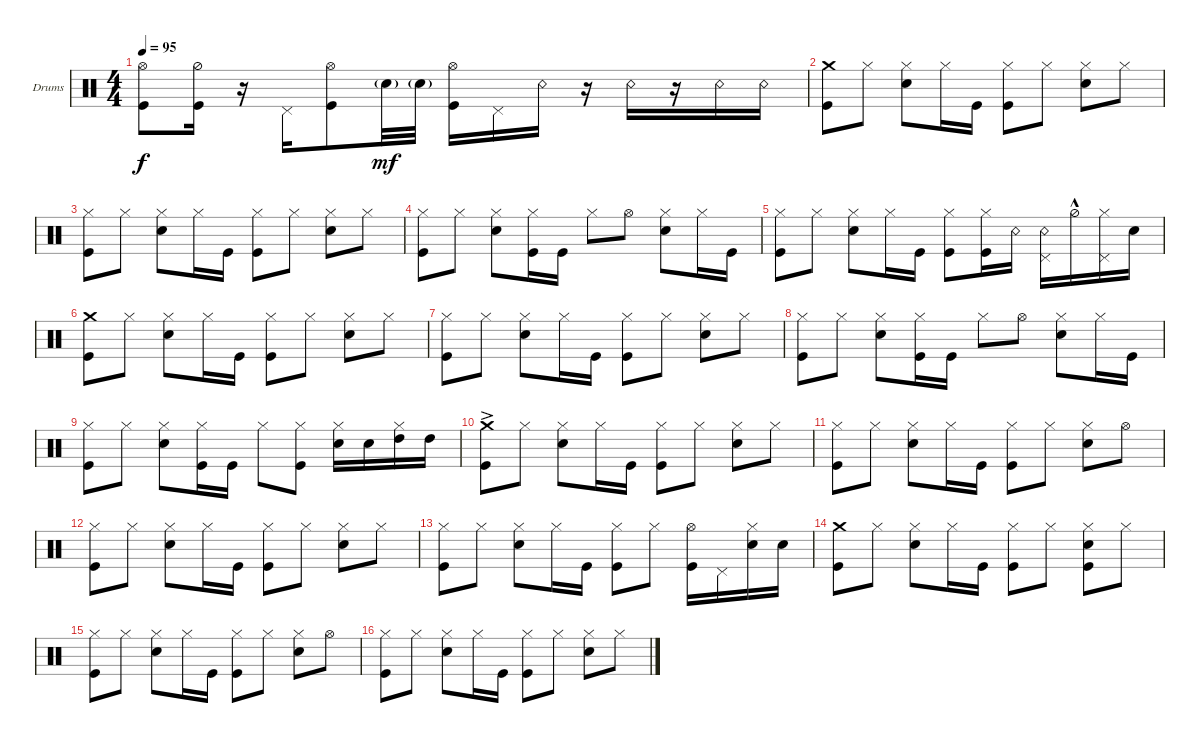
\defaultSystemsLayout 4
\bracketExtendMode groupsimilarinstruments
\firstSystemTrackNameOrientation horizontal
\otherSystemsTrackNameOrientation horizontal
\track ("Batterie " "Drums") {instrument percussion}
\staff {score}
\articulation defaults
\ts (4 4)
\tempo 95
\clef neutral
\ks c
("Kick (hit)"{t} "Hi-Hat (open)"{t}).8{dy f} ("Kick (hit)" "Hi-Hat (half)").16 r.16 "Pedal Hi-Hat (hit)".16 ("Kick (hit)" "Hi-Hat (open)").8 "Snare (hit) 2"{g}.32{dy mf} "Snare (hit) 2"{g}.32 ("Kick (hit)" "Hi-Hat (open)").16 "Pedal Hi-Hat (hit)".16 "Snare (rim shot)".16 r.16 "Snare (rim shot)".16 r.16 "Snare (rim shot)".16 "Snare (rim shot)".16 |
("Kick (hit)" "Crash medium (hit)").8 "Hi-Hat (closed)".8 ("Hi-Hat (closed)" "Snare (hit) 2").8 "Hi-Hat (closed)".16 "Kick (hit)".16 ("Hi-Hat (closed)" "Kick (hit)").8 "Hi-Hat (closed)".8 ("Hi-Hat (closed)" "Snare (hit) 2").8 "Hi-Hat (closed)".8 |
("Kick (hit)" "Hi-Hat (closed)").8 "Hi-Hat (closed)".8 ("Hi-Hat (closed)" "Snare (hit) 2").8 "Hi-Hat (closed)".16 "Kick (hit)".16 ("Hi-Hat (closed)" "Kick (hit)").8 "Hi-Hat (closed)".8 ("Hi-Hat (closed)" "Snare (hit) 2").8 "Hi-Hat (closed)".8 |
("Kick (hit)" "Hi-Hat (closed)").8 "Hi-Hat (closed)".8 ("Hi-Hat (closed)" "Snare (hit) 2").8 ("Hi-Hat (closed)" "Kick (hit)").16 "Kick (hit)".16 "Hi-Hat (closed)".8 "Hi-Hat (open)".8 ("Hi-Hat (closed)" "Snare (hit) 2").8 "Hi-Hat (closed)".16 "Kick (hit)".16 |
("Kick (hit)" "Hi-Hat (closed)").8 "Hi-Hat (closed)".8 ("Hi-Hat (closed)" "Snare (hit) 2").8 "Hi-Hat (closed)".16 "Kick (hit)".16 ("Hi-Hat (closed)" "Kick (hit)").8 ("Hi-Hat (closed)" "Kick (hit)").16 "Snare (rim shot)".16 ("Snare (rim shot)" "Pedal Hi-Hat (hit)").16 "Hi-Hat (half)"{hac}.16 ("Pedal Hi-Hat (hit)" "Hi-Hat (closed)").16 "Snare (hit) 2".16 |
("Kick (hit)" "Crash medium (hit)").8 "Hi-Hat (closed)".8 ("Hi-Hat (closed)" "Snare (hit) 2").8 "Hi-Hat (closed)".16 "Kick (hit)".16 ("Hi-Hat (closed)" "Kick (hit)").8 "Hi-Hat (closed)".8 ("Hi-Hat (closed)" "Snare (hit) 2").8 "Hi-Hat (closed)".8 |
("Kick (hit)" "Hi-Hat (closed)").8 "Hi-Hat (closed)".8 ("Hi-Hat (closed)" "Snare (hit) 2").8 "Hi-Hat (closed)".16 "Kick (hit)".16 ("Hi-Hat (closed)" "Kick (hit)").8 "Hi-Hat (closed)".8 ("Hi-Hat (closed)" "Snare (hit) 2").8 "Hi-Hat (closed)".8 |
("Kick (hit)" "Hi-Hat (closed)").8 "Hi-Hat (closed)".8 ("Hi-Hat (closed)" "Snare (hit) 2").8 ("Hi-Hat (closed)" "Kick (hit)").16 "Kick (hit)".16 "Hi-Hat (closed)".8 "Hi-Hat (open)".8 ("Hi-Hat (closed)" "Snare (hit) 2").8 "Hi-Hat (closed)".16 "Kick (hit)".16 |
("Kick (hit)" "Hi-Hat (closed)").8 "Hi-Hat (closed)".8 ("Hi-Hat (closed)" "Snare (hit) 2").8 ("Hi-Hat (closed)" "Kick (hit)").16 "Kick (hit)".16 "Hi-Hat (closed)".8 ("Hi-Hat (closed)" "Kick (hit)").8 ("Hi-Hat (closed)" "Snare (hit) 2").16 "Snare (hit) 2".16 ("High Tom (hit)" "Hi-Hat (closed)").16 "High Tom (hit)".16 |
("Crash medium (hit)"{ac} "Kick (hit)").8 "Hi-Hat (closed)".8 ("Hi-Hat (closed)" "Snare (hit) 2").8 "Hi-Hat (closed)".16 "Kick (hit)".16 ("Hi-Hat (closed)" "Kick (hit)").8 "Hi-Hat (closed)".8 ("Hi-Hat (closed)" "Snare (hit) 2").8 "Hi-Hat (closed)".8 |
("Kick (hit)" "Hi-Hat (closed)").8 "Hi-Hat (closed)".8 ("Hi-Hat (closed)" "Snare (hit) 2").8 "Hi-Hat (closed)".16 "Kick (hit)".16 ("Hi-Hat (closed)" "Kick (hit)").8 "Hi-Hat (closed)".8 ("Hi-Hat (closed)" "Snare (hit) 2").8 "Hi-Hat (open)".8 |
("Kick (hit)" "Hi-Hat (closed)").8 "Hi-Hat (closed)".8 ("Hi-Hat (closed)" "Snare (hit) 2").8 "Hi-Hat (closed)".16 "Kick (hit)".16 ("Hi-Hat (closed)" "Kick (hit)").8 "Hi-Hat (closed)".8 ("Hi-Hat (closed)" "Snare (hit) 2").8 "Hi-Hat (closed)".8 |
("Kick (hit)" "Hi-Hat (closed)").8 "Hi-Hat (closed)".8 ("Hi-Hat (closed)" "Snare (hit) 2").8 "Hi-Hat (closed)".16 "Kick (hit)".16 ("Hi-Hat (closed)" "Kick (hit)").8 "Hi-Hat (closed)".8 ("Hi-Hat (open)" "Kick (hit)").16 "Pedal Hi-Hat (hit)".16 ("Hi-Hat (closed)" "Snare (hit) 2").16 "Snare (hit) 2".16 |
("Crash medium (hit)" "Kick (hit)").8 "Hi-Hat (closed)".8 ("Hi-Hat (closed)" "Snare (hit) 2").8 "Hi-Hat (closed)".16 "Kick (hit)".16 ("Hi-Hat (closed)" "Kick (hit)").8 "Hi-Hat (closed)".8 ("Hi-Hat (closed)" "Snare (hit) 2" "Kick (hit)").8 "Hi-Hat (closed)".8 |
("Kick (hit)" "Hi-Hat (closed)").8 "Hi-Hat (closed)".8 ("Hi-Hat (closed)" "Snare (hit) 2").8 "Hi-Hat (closed)".16 "Kick (hit)".16 ("Hi-Hat (closed)" "Kick (hit)").8 "Hi-Hat (closed)".8 ("Hi-Hat (closed)" "Snare (hit) 2").8 "Hi-Hat (open)".8 |
("Kick (hit)" "Hi-Hat (closed)").8 "Hi-Hat (closed)".8 ("Hi-Hat (closed)" "Snare (hit) 2").8 "Hi-Hat (closed)".16 "Kick (hit)".16 ("Hi-Hat (closed)" "Kick (hit)").8 "Hi-Hat (closed)".8 ("Hi-Hat (closed)" "Snare (hit) 2").8 "Hi-Hat (closed)".8
